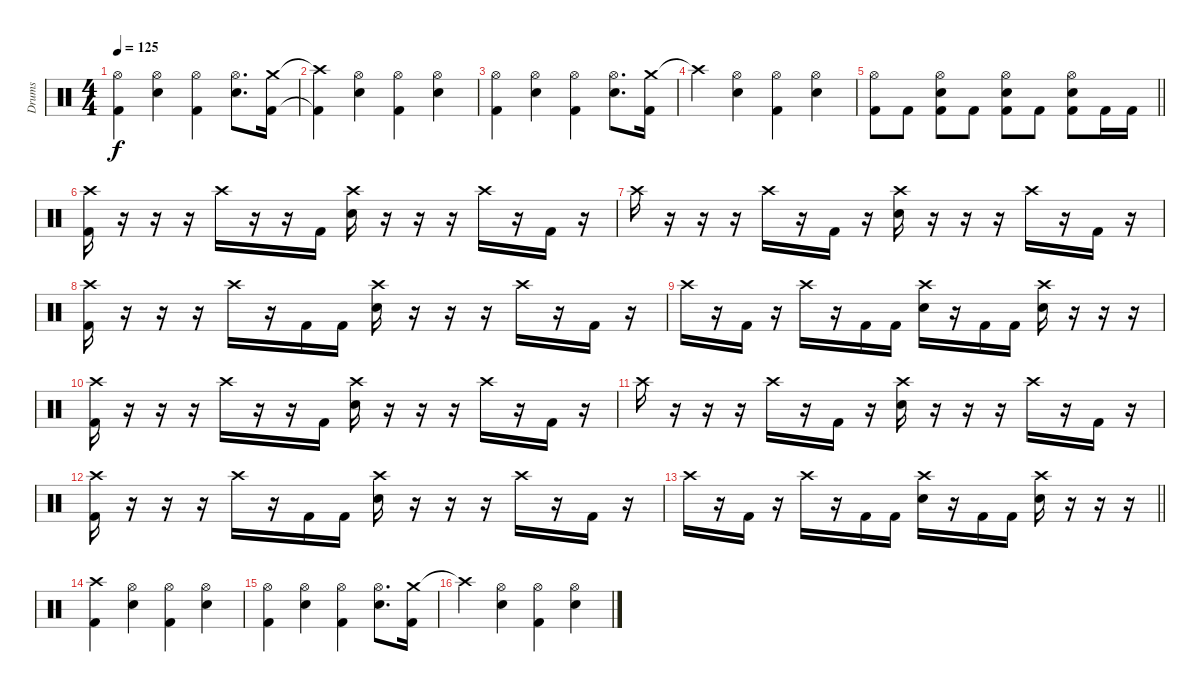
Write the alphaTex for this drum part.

\track ("Drums" "Drums") {instrument percussion}
\staff
\articulation defaults
\ts (4 4)
\tempo 125
\clef neutral
\ks c
("Hi-Hat (open)" "Kick (hit) 2").4{dy f} ("Hi-Hat (open)" "Electric Snare (hit)").4 ("Hi-Hat (open)" "Kick (hit) 2").4 ("Hi-Hat (open)" "Electric Snare (hit)").8{d} ("Crash medium (hit)" "Kick (hit) 2").16 |
("Crash high (hit)"{t} "Kick (hit) 2"{t}).4 ("Hi-Hat (open)" "Electric Snare (hit)").4 ("Hi-Hat (open)" "Kick (hit) 2").4 ("Hi-Hat (open)" "Electric Snare (hit)").4 |
("Hi-Hat (open)" "Kick (hit) 2").4 ("Hi-Hat (open)" "Electric Snare (hit)").4 ("Hi-Hat (open)" "Kick (hit) 2").4 ("Hi-Hat (open)" "Electric Snare (hit)").8{d} ("Crash medium (hit)" "Kick (hit) 2").16 |
"Crash high (hit)"{t}.4 ("Hi-Hat (open)" "Electric Snare (hit)").4 ("Hi-Hat (open)" "Kick (hit) 2").4 ("Hi-Hat (open)" "Electric Snare (hit)").4 |
\barLineRight lightlight
("Hi-Hat (open)" "Kick (hit) 2").8 "Kick (hit) 2".8 ("Hi-Hat (open)" "Electric Snare (hit)" "Kick (hit) 2").8 "Kick (hit) 2".8 ("Hi-Hat (open)" "Electric Snare (hit)" "Kick (hit) 2").8 "Kick (hit) 2".8 ("Hi-Hat (open)" "Electric Snare (hit)" "Kick (hit) 2").8 "Kick (hit) 2".16 "Kick (hit) 2".16 |
\section ("" "")
("Crash high (hit)" "Kick (hit) 2").16 r.16 r.16 r.16 "Crash high (hit)".16 r.16 r.16 "Kick (hit) 2".16 ("Crash high (hit)" "Electric Snare (hit)").16 r.16 r.16 r.16 "Crash high (hit)".16 r.16 "Kick (hit) 2".16 r.16 |
"Crash high (hit)".16 r.16 r.16 r.16 "Crash high (hit)".16 r.16 "Kick (hit) 2".16 r.16 ("Crash high (hit)" "Electric Snare (hit)").16 r.16 r.16 r.16 "Crash high (hit)".16 r.16 "Kick (hit) 2".16 r.16 |
("Crash high (hit)" "Kick (hit) 2").16 r.16 r.16 r.16 "Crash high (hit)".16 r.16 "Kick (hit) 2".16 "Kick (hit) 2".16 ("Crash high (hit)" "Electric Snare (hit)").16 r.16 r.16 r.16 "Crash high (hit)".16 r.16 "Kick (hit) 2".16 r.16 |
"Crash high (hit)".16 r.16 "Kick (hit) 2".16 r.16 "Crash high (hit)".16 r.16 "Kick (hit) 2".16 "Kick (hit) 2".16 ("Crash high (hit)" "Electric Snare (hit)").16 r.16 "Kick (hit) 2".16 "Kick (hit) 2".16 ("Crash high (hit)" "Electric Snare (hit)").16 r.16 r.16 r.16 |
("Crash high (hit)" "Kick (hit) 2").16 r.16 r.16 r.16 "Crash high (hit)".16 r.16 r.16 "Kick (hit) 2".16 ("Crash high (hit)" "Electric Snare (hit)").16 r.16 r.16 r.16 "Crash high (hit)".16 r.16 "Kick (hit) 2".16 r.16 |
"Crash high (hit)".16 r.16 r.16 r.16 "Crash high (hit)".16 r.16 "Kick (hit) 2".16 r.16 ("Crash high (hit)" "Electric Snare (hit)").16 r.16 r.16 r.16 "Crash high (hit)".16 r.16 "Kick (hit) 2".16 r.16 |
("Crash high (hit)" "Kick (hit) 2").16 r.16 r.16 r.16 "Crash high (hit)".16 r.16 "Kick (hit) 2".16 "Kick (hit) 2".16 ("Crash high (hit)" "Electric Snare (hit)").16 r.16 r.16 r.16 "Crash high (hit)".16 r.16 "Kick (hit) 2".16 r.16 |
\barLineRight lightlight "Crash high (hit)".16
r.16 "Kick (hit) 2".16 r.16 "Crash high (hit)".16 r.16 "Kick (hit) 2".16 "Kick (hit) 2".16 ("Crash high (hit)" "Electric Snare (hit)").16 r.16 "Kick (hit) 2".16 "Kick (hit) 2".16 ("Crash high (hit)" "Electric Snare (hit)").16 r.16 r.16 r.16 |
\section ("" "")
("Crash high (hit)" "Kick (hit) 2").4 ("Hi-Hat (open)" "Electric Snare (hit)").4 ("Hi-Hat (open)" "Kick (hit) 2").4 ("Hi-Hat (open)" "Electric Snare (hit)").4 |
("Hi-Hat (open)" "Kick (hit) 2").4 ("Hi-Hat (open)" "Electric Snare (hit)").4 ("Hi-Hat (open)" "Kick (hit) 2").4 ("Hi-Hat (open)" "Electric Snare (hit)").8{d} ("Crash medium (hit)" "Kick (hit) 2").16 |
"Crash high (hit)"{t}.4 ("Hi-Hat (open)" "Electric Snare (hit)").4 ("Hi-Hat (open)" "Kick (hit) 2").4 ("Hi-Hat (open)" "Electric Snare (hit)").4
